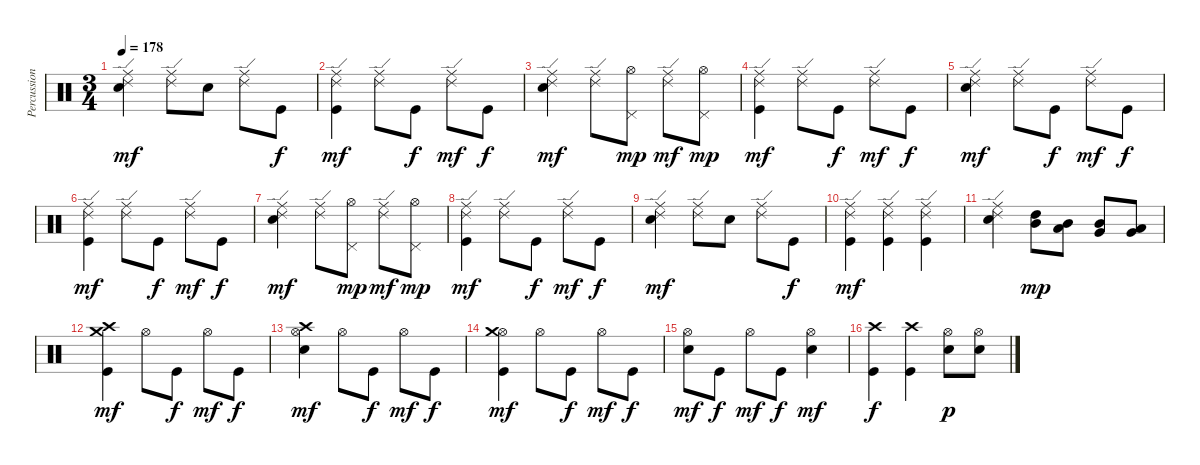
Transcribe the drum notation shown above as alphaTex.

\track ("Percussions" "Percussion") {instrument percussion}
\staff {score}
\articulation defaults
\ts (3 4)
\tempo 178
\clef neutral
\ks c
("Electric Snare (hit)" "Ride (middle)" "Ride (edge) 2").4{dy mf} ("Ride (middle)" "Ride (edge) 2").8 "Electric Snare (hit)".8 ("Ride (middle)" "Ride (edge) 2").8 "Kick (hit)".8{dy f} |
("Kick (hit)" "Ride (middle)" "Ride (edge) 2").4{dy mf} ("Ride (middle)" "Ride (edge) 2").8 "Kick (hit)".8{dy f} ("Ride (middle)" "Ride (edge) 2").8{dy mf} "Kick (hit)".8{dy f} |
("Electric Snare (hit)" "Ride (middle)" "Ride (edge) 2").4{dy mf} ("Ride (middle)" "Ride (edge) 2").8 ("Hi-Hat (open)" "Pedal Hi-Hat (hit)").8{dy mp} ("Ride (middle)" "Ride (edge) 2").8{dy mf} ("Hi-Hat (open)" "Pedal Hi-Hat (hit)").8{dy mp} |
("Kick (hit)" "Ride (middle)" "Ride (edge) 2").4{dy mf} ("Ride (middle)" "Ride (edge) 2").8 "Kick (hit)".8{dy f} ("Ride (middle)" "Ride (edge) 2").8{dy mf} "Kick (hit)".8{dy f} |
("Electric Snare (hit)" "Ride (middle)" "Ride (edge) 2").4{dy mf} ("Ride (middle)" "Ride (edge) 2").8 "Kick (hit)".8{dy f} ("Ride (middle)" "Ride (edge) 2").8{dy mf} "Kick (hit)".8{dy f} |
("Kick (hit)" "Ride (middle)" "Ride (edge) 2").4{dy mf} ("Ride (middle)" "Ride (edge) 2").8 "Kick (hit)".8{dy f} ("Ride (middle)" "Ride (edge) 2").8{dy mf} "Kick (hit)".8{dy f} |
("Electric Snare (hit)" "Ride (middle)" "Ride (edge) 2").4{dy mf} ("Ride (middle)" "Ride (edge) 2").8 ("Hi-Hat (open)" "Pedal Hi-Hat (hit)").8{dy mp} ("Ride (middle)" "Ride (edge) 2").8{dy mf} ("Hi-Hat (open)" "Pedal Hi-Hat (hit)").8{dy mp} |
("Kick (hit)" "Ride (middle)" "Ride (edge) 2").4{dy mf} ("Ride (middle)" "Ride (edge) 2").8 "Kick (hit)".8{dy f} ("Ride (middle)" "Ride (edge) 2").8{dy mf} "Kick (hit)".8{dy f} |
("Electric Snare (hit)" "Ride (middle)" "Ride (edge) 2").4{dy mf} ("Ride (middle)" "Ride (edge) 2").8 "Electric Snare (hit)".8 ("Ride (middle)" "Ride (edge) 2").8 "Kick (hit)".8{dy f} |
("Kick (hit)" "Ride (middle)" "Ride (edge) 2").4{dy mf} ("Kick (hit)" "Ride (middle)" "Ride (edge) 2").4 ("Kick (hit)" "Ride (middle)" "Ride (edge) 2").4 |
("Electric Snare (hit)" "Ride (middle)" "Ride (edge) 2").4 ("Mid Tom (hit)" "High Tom (hit)").8{dy mp} ("Low Tom (hit)" "Mid Tom (hit)").8 ("Very Low Tom (hit)" "Mid Tom (hit)").8 ("Very Low Tom (hit)" "Low Tom (hit)").8 |
("Kick (hit)" "Crash high (hit)" "Crash medium (hit)").4{dy mf} "Hi-Hat (open)".8 "Kick (hit)".8{dy f} "Hi-Hat (open)".8{dy mf} "Kick (hit)".8{dy f} |
("Electric Snare (hit)" "Hi-Hat (open)" "Crash high (hit)").4{dy mf} "Hi-Hat (open)".8 "Kick (hit)".8{dy f} "Hi-Hat (open)".8{dy mf} "Kick (hit)".8{dy f} |
("Kick (hit)" "Hi-Hat (open)" "Crash medium (hit)").4{dy mf} "Hi-Hat (open)".8 "Kick (hit)".8{dy f} "Hi-Hat (open)".8{dy mf} "Kick (hit)".8{dy f} |
("Electric Snare (hit)" "Hi-Hat (open)").8{dy mf} "Kick (hit)".8{dy f} "Hi-Hat (open)".8{dy mf} "Kick (hit)".8{dy f} ("Electric Snare (hit)" "Hi-Hat (open)").4{dy mf} |
("Kick (hit)" "Crash high (hit)").4{dy f} ("Kick (hit)" "Crash high (hit)").4 ("Electric Snare (hit)" "Hi-Hat (open)").8{dy p} ("Electric Snare (hit)" "Hi-Hat (open)").8
